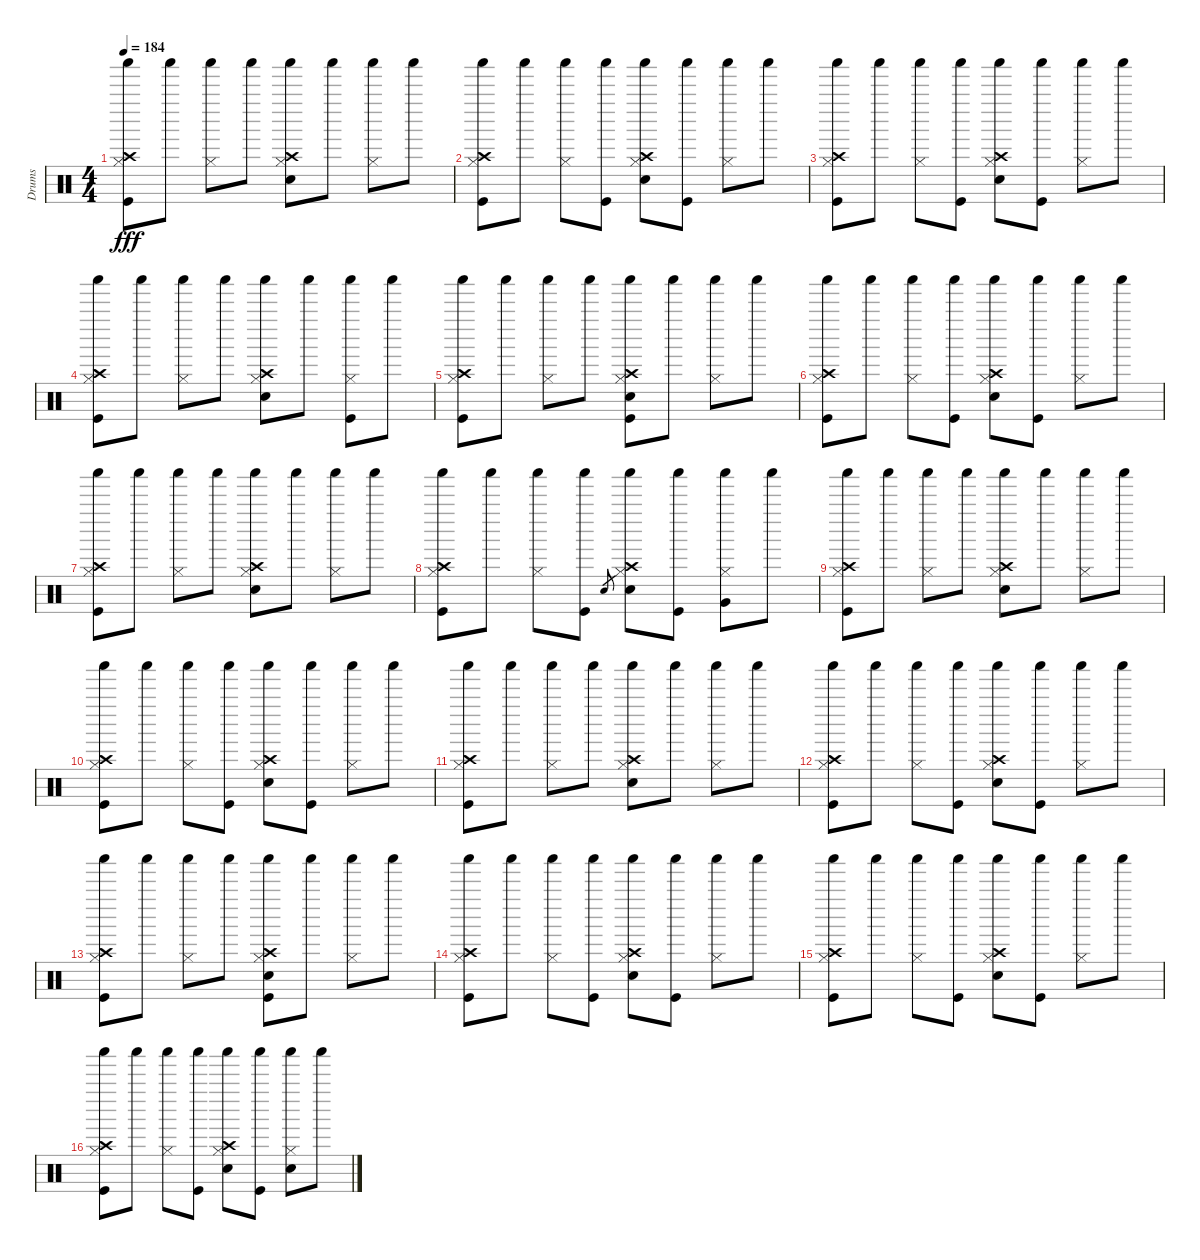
\track ("Drums" "Drums") {instrument percussion}
\staff {score}
\articulation defaults
\ts (4 4)
\tempo 184
\clef neutral
\ks c
("Hi-Hat (closed)" "Shaker (hit)" "Crash high (hit)" "Kick (hit)").8{dy fff} "Shaker (hit)".8 ("Hi-Hat (closed)" "Shaker (hit)").8 "Shaker (hit)".8 ("Hi-Hat (closed)" "Shaker (hit)" "Crash high (hit)" "Snare (hit) 2").8 "Shaker (hit)".8 ("Hi-Hat (closed)" "Shaker (hit)").8 "Shaker (hit)".8 |
("Hi-Hat (closed)" "Shaker (hit)" "Crash high (hit)" "Kick (hit)").8 "Shaker (hit)".8 ("Hi-Hat (closed)" "Shaker (hit)").8 ("Shaker (hit)" "Kick (hit)").8 ("Hi-Hat (closed)" "Shaker (hit)" "Crash high (hit)" "Snare (hit) 2").8 ("Shaker (hit)" "Kick (hit)").8 ("Hi-Hat (closed)" "Shaker (hit)").8 "Shaker (hit)".8 |
("Hi-Hat (closed)" "Shaker (hit)" "Crash high (hit)" "Kick (hit)").8 "Shaker (hit)".8 ("Hi-Hat (closed)" "Shaker (hit)").8 ("Shaker (hit)" "Kick (hit)").8 ("Hi-Hat (closed)" "Shaker (hit)" "Crash high (hit)" "Snare (hit) 2").8 ("Shaker (hit)" "Kick (hit)").8 ("Hi-Hat (closed)" "Shaker (hit)").8 "Shaker (hit)".8 |
("Hi-Hat (closed)" "Shaker (hit)" "Crash high (hit)" "Kick (hit)").8 "Shaker (hit)".8 ("Hi-Hat (closed)" "Shaker (hit)").8 "Shaker (hit)".8 ("Hi-Hat (closed)" "Shaker (hit)" "Crash high (hit)" "Snare (hit) 2").8 "Shaker (hit)".8 ("Hi-Hat (closed)" "Shaker (hit)" "Kick (hit)").8 "Shaker (hit)".8 |
("Hi-Hat (closed)" "Shaker (hit)" "Crash high (hit)" "Kick (hit)").8 "Shaker (hit)".8 ("Hi-Hat (closed)" "Shaker (hit)").8 "Shaker (hit)".8 ("Hi-Hat (closed)" "Shaker (hit)" "Crash high (hit)" "Snare (hit) 2" "Kick (hit)").8 "Shaker (hit)".8 ("Hi-Hat (closed)" "Shaker (hit)").8 "Shaker (hit)".8 |
("Hi-Hat (closed)" "Shaker (hit)" "Crash high (hit)" "Kick (hit)").8 "Shaker (hit)".8 ("Hi-Hat (closed)" "Shaker (hit)").8 ("Shaker (hit)" "Kick (hit)").8 ("Hi-Hat (closed)" "Shaker (hit)" "Crash high (hit)" "Snare (hit) 2").8 ("Shaker (hit)" "Kick (hit)").8 ("Hi-Hat (closed)" "Shaker (hit)").8 "Shaker (hit)".8 |
("Hi-Hat (closed)" "Shaker (hit)" "Crash high (hit)" "Kick (hit)").8 "Shaker (hit)".8 ("Hi-Hat (closed)" "Shaker (hit)").8 "Shaker (hit)".8 ("Hi-Hat (closed)" "Shaker (hit)" "Crash high (hit)" "Snare (hit) 2").8 "Shaker (hit)".8 ("Hi-Hat (closed)" "Shaker (hit)").8 "Shaker (hit)".8 |
("Hi-Hat (closed)" "Shaker (hit)" "Crash high (hit)" "Kick (hit)").8 "Shaker (hit)".8 ("Hi-Hat (closed)" "Shaker (hit)").8 ("Shaker (hit)" "Kick (hit)").8 "Snare (hit) 2".8{gr} ("Hi-Hat (closed)" "Shaker (hit)" "Crash high (hit)" "Snare (hit) 2").8 ("Shaker (hit)" "Kick (hit)").8 ("Hi-Hat (closed)" "Shaker (hit)" "Very Low Tom (hit)").8 "Shaker (hit)".8 |
("Hi-Hat (closed)" "Shaker (hit)" "Crash high (hit)" "Kick (hit)").8 "Shaker (hit)".8 ("Hi-Hat (closed)" "Shaker (hit)").8 "Shaker (hit)".8 ("Hi-Hat (closed)" "Shaker (hit)" "Crash high (hit)" "Snare (hit) 2").8 "Shaker (hit)".8 ("Hi-Hat (closed)" "Shaker (hit)").8 "Shaker (hit)".8 |
("Hi-Hat (closed)" "Shaker (hit)" "Crash high (hit)" "Kick (hit)").8 "Shaker (hit)".8 ("Hi-Hat (closed)" "Shaker (hit)").8 ("Shaker (hit)" "Kick (hit)").8 ("Hi-Hat (closed)" "Shaker (hit)" "Crash high (hit)" "Snare (hit) 2").8 ("Shaker (hit)" "Kick (hit)").8 ("Hi-Hat (closed)" "Shaker (hit)").8 "Shaker (hit)".8 |
("Hi-Hat (closed)" "Shaker (hit)" "Crash high (hit)" "Kick (hit)").8 "Shaker (hit)".8 ("Hi-Hat (closed)" "Shaker (hit)").8 "Shaker (hit)".8 ("Hi-Hat (closed)" "Shaker (hit)" "Crash high (hit)" "Snare (hit) 2").8 "Shaker (hit)".8 ("Hi-Hat (closed)" "Shaker (hit)").8 "Shaker (hit)".8 |
("Hi-Hat (closed)" "Shaker (hit)" "Crash high (hit)" "Kick (hit)").8 "Shaker (hit)".8 ("Hi-Hat (closed)" "Shaker (hit)").8 ("Shaker (hit)" "Kick (hit)").8 ("Hi-Hat (closed)" "Shaker (hit)" "Crash high (hit)" "Snare (hit) 2").8 ("Shaker (hit)" "Kick (hit)").8 ("Hi-Hat (closed)" "Shaker (hit)").8 "Shaker (hit)".8 |
("Hi-Hat (closed)" "Shaker (hit)" "Crash high (hit)" "Kick (hit)").8 "Shaker (hit)".8 ("Hi-Hat (closed)" "Shaker (hit)").8 "Shaker (hit)".8 ("Hi-Hat (closed)" "Shaker (hit)" "Crash high (hit)" "Snare (hit) 2" "Kick (hit)").8 "Shaker (hit)".8 ("Hi-Hat (closed)" "Shaker (hit)").8 "Shaker (hit)".8 |
("Hi-Hat (closed)" "Shaker (hit)" "Crash high (hit)" "Kick (hit)").8 "Shaker (hit)".8 ("Hi-Hat (closed)" "Shaker (hit)").8 ("Shaker (hit)" "Kick (hit)").8 ("Hi-Hat (closed)" "Shaker (hit)" "Crash high (hit)" "Snare (hit) 2").8 ("Shaker (hit)" "Kick (hit)").8 ("Hi-Hat (closed)" "Shaker (hit)").8 "Shaker (hit)".8 |
("Hi-Hat (closed)" "Shaker (hit)" "Crash high (hit)" "Kick (hit)").8 "Shaker (hit)".8 ("Hi-Hat (closed)" "Shaker (hit)").8 ("Shaker (hit)" "Kick (hit)").8 ("Hi-Hat (closed)" "Shaker (hit)" "Crash high (hit)" "Snare (hit) 2").8 ("Shaker (hit)" "Kick (hit)").8 ("Hi-Hat (closed)" "Shaker (hit)").8 "Shaker (hit)".8 |
("Hi-Hat (closed)" "Shaker (hit)" "Crash high (hit)" "Kick (hit)").8 "Shaker (hit)".8 ("Hi-Hat (closed)" "Shaker (hit)").8 ("Shaker (hit)" "Kick (hit)").8 ("Hi-Hat (closed)" "Shaker (hit)" "Crash high (hit)" "Snare (hit) 2").8 ("Shaker (hit)" "Kick (hit)").8 ("Hi-Hat (closed)" "Shaker (hit)" "Snare (hit) 2").8 "Shaker (hit)".8
